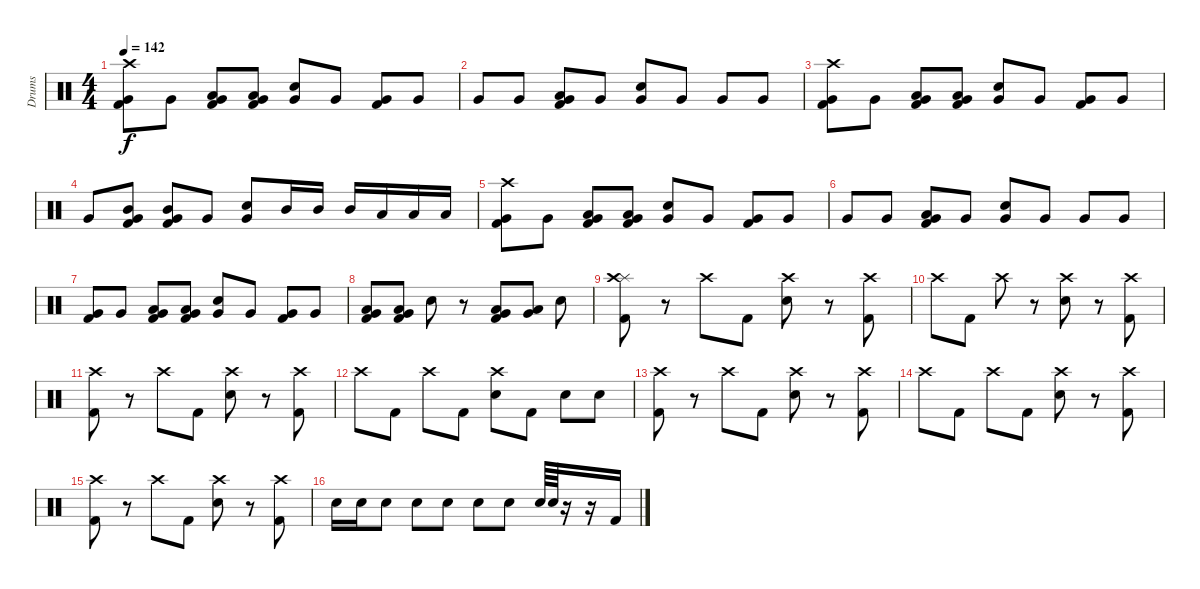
\track ("Drums" "Drums") {instrument percussion}
\staff {score}
\articulation defaults
\ts (4 4)
\tempo 142
\clef neutral
\ks c
("Crash high (hit)" "Very Low Tom (hit)" "Kick (hit) 2").8{dy f} "Very Low Tom (hit)".8 ("Very Low Tom (hit)" "Low Tom (hit)" "Kick (hit) 2").8 ("Very Low Tom (hit)" "Low Tom (hit)" "Kick (hit) 2").8 ("Very Low Tom (hit)" "Snare (hit) 2").8 "Very Low Tom (hit)".8 ("Very Low Tom (hit)" "Kick (hit) 2").8 "Very Low Tom (hit)".8 |
"Very Low Tom (hit)".8 "Very Low Tom (hit)".8 ("Very Low Tom (hit)" "Low Tom (hit)" "Kick (hit) 2").8 "Very Low Tom (hit)".8 ("Very Low Tom (hit)" "Snare (hit) 2").8 "Very Low Tom (hit)".8 "Very Low Tom (hit)".8 "Very Low Tom (hit)".8 |
("Crash high (hit)" "Very Low Tom (hit)" "Kick (hit) 2").8 "Very Low Tom (hit)".8 ("Very Low Tom (hit)" "Low Tom (hit)" "Kick (hit) 2").8 ("Very Low Tom (hit)" "Low Tom (hit)" "Kick (hit) 2").8 ("Very Low Tom (hit)" "Snare (hit) 2").8 "Very Low Tom (hit)".8 ("Very Low Tom (hit)" "Kick (hit) 2").8 "Very Low Tom (hit)".8 |
"Very Low Tom (hit)".8 ("Very Low Tom (hit)" "Mid Tom (hit)" "Kick (hit) 2").8 ("Very Low Tom (hit)" "Mid Tom (hit)" "Kick (hit) 2").8 "Very Low Tom (hit)".8 ("Very Low Tom (hit)" "Snare (hit) 2").8 "Mid Tom (hit)".16 "Mid Tom (hit)".16 "Mid Tom (hit)".16 "Low Tom (hit)".16 "Low Tom (hit)".16 "Low Tom (hit)".16 |
("Crash high (hit)" "Very Low Tom (hit)" "Kick (hit) 2").8 "Very Low Tom (hit)".8 ("Very Low Tom (hit)" "Low Tom (hit)" "Kick (hit) 2").8 ("Very Low Tom (hit)" "Low Tom (hit)" "Kick (hit) 2").8 ("Very Low Tom (hit)" "Snare (hit) 2").8 "Very Low Tom (hit)".8 ("Very Low Tom (hit)" "Kick (hit) 2").8 "Very Low Tom (hit)".8 |
"Very Low Tom (hit)".8 "Very Low Tom (hit)".8 ("Very Low Tom (hit)" "Low Tom (hit)" "Kick (hit) 2").8 "Very Low Tom (hit)".8 ("Very Low Tom (hit)" "Snare (hit) 2").8 "Very Low Tom (hit)".8 "Very Low Tom (hit)".8 "Very Low Tom (hit)".8 |
("Very Low Tom (hit)" "Kick (hit) 2").8 "Very Low Tom (hit)".8 ("Very Low Tom (hit)" "Low Tom (hit)" "Kick (hit) 2").8 ("Very Low Tom (hit)" "Low Tom (hit)" "Kick (hit) 2").8 ("Very Low Tom (hit)" "Snare (hit) 2").8 "Very Low Tom (hit)".8 ("Very Low Tom (hit)" "Kick (hit) 2").8 "Very Low Tom (hit)".8 |
("Very Low Tom (hit)" "Low Tom (hit)" "Kick (hit) 2").8 ("Very Low Tom (hit)" "Low Tom (hit)" "Kick (hit) 2").8 "Snare (hit) 2".8 r.8 ("Very Low Tom (hit)" "Low Tom (hit)" "Kick (hit) 2").8 ("Very Low Tom (hit)" "Low Tom (hit)").8 "Snare (hit) 2".8 |
("Splash (hit)" "Crash high (hit)" "Kick (hit) 2").8 r.8 "Crash high (hit)".8 "Kick (hit) 2".8 ("Crash high (hit)" "Snare (hit) 2").8 r.8 ("Crash high (hit)" "Kick (hit) 2").8 |
"Crash high (hit)".8 "Kick (hit) 2".8 "Crash high (hit)".8 r.8 ("Crash high (hit)" "Snare (hit) 2").8 r.8 ("Crash high (hit)" "Kick (hit) 2").8 |
("Crash high (hit)" "Kick (hit) 2").8 r.8 "Crash high (hit)".8 "Kick (hit) 2".8 ("Crash high (hit)" "Snare (hit) 2").8 r.8 ("Crash high (hit)" "Kick (hit) 2").8 |
"Crash high (hit)".8 "Kick (hit) 2".8 "Crash high (hit)".8 "Kick (hit) 2".8 ("Crash high (hit)" "Snare (hit) 2").8 "Kick (hit) 2".8 "Snare (hit) 2".8 "Snare (hit) 2".8 |
("Crash high (hit)" "Kick (hit) 2").8 r.8 "Crash high (hit)".8 "Kick (hit) 2".8 ("Crash high (hit)" "Snare (hit) 2").8 r.8 ("Crash high (hit)" "Kick (hit) 2").8 |
"Crash high (hit)".8 "Kick (hit) 2".8 "Crash high (hit)".8 "Kick (hit) 2".8 ("Crash high (hit)" "Snare (hit) 2").8 r.8 ("Crash high (hit)" "Kick (hit) 2").8 |
("Crash high (hit)" "Kick (hit) 2").8 r.8 "Crash high (hit)".8 "Kick (hit) 2".8 ("Crash high (hit)" "Snare (hit) 2").8 r.8 ("Crash high (hit)" "Kick (hit) 2").8 |
"Snare (hit) 2".16 "Snare (hit) 2".16 "Snare (hit) 2".8 "Snare (hit) 2".8 "Snare (hit) 2".8 "Snare (hit) 2".8 "Snare (hit) 2".8 "Snare (hit) 2".64 "Snare (hit) 2".64 r.16 r.16 "Kick (hit) 2".16
